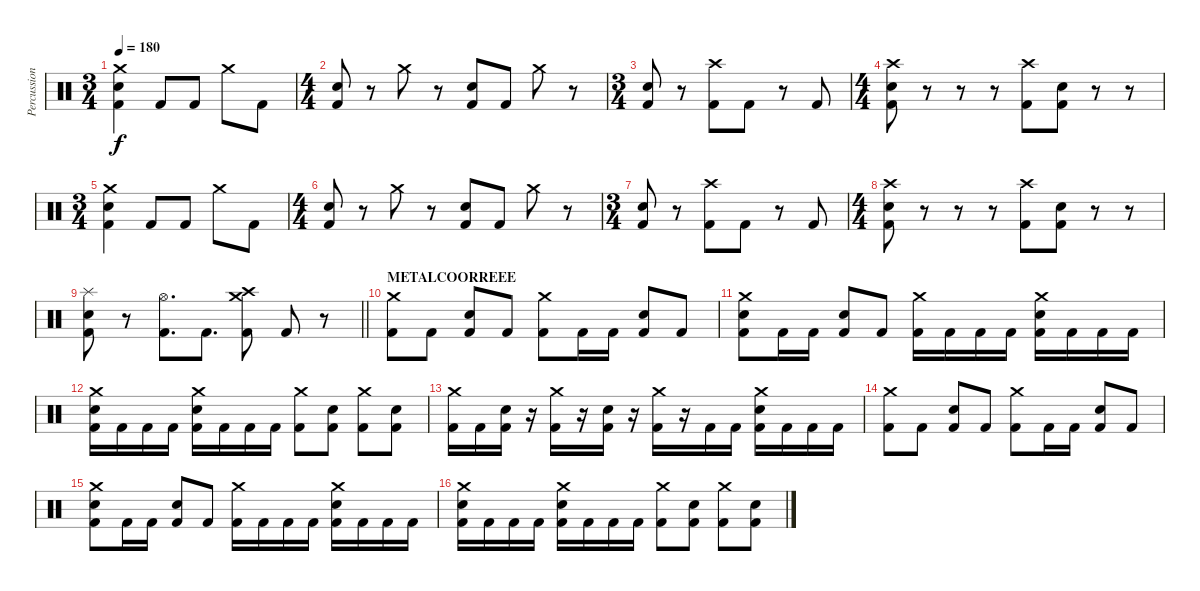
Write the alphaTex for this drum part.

\track ("Percussion" "Percussion") {instrument percussion}
\staff {score}
\articulation defaults
\ts (3 4)
\tempo 180
\clef neutral
\ks c
("Crash medium (hit)" "Electric Snare (hit)" "Kick (hit) 2").4{dy f} "Kick (hit) 2".8 "Kick (hit) 2".8 "Crash medium (hit)".8 "Kick (hit) 2".8 |
\ts (4 4)
("Electric Snare (hit)" "Kick (hit) 2").8 r.8 "Crash medium (hit)".8 r.8 ("Electric Snare (hit)" "Kick (hit) 2").8 "Kick (hit) 2".8 "Crash medium (hit)".8 r.8 |
\ts (3 4)
("Electric Snare (hit)" "Kick (hit) 2").8 r.8 ("Crash high (hit)" "Kick (hit) 2").8 "Kick (hit) 2".8 r.8 "Kick (hit) 2".8 |
\ts (4 4)
("Crash high (hit)" "Electric Snare (hit)" "Kick (hit) 2").8 r.8 r.8 r.8 ("Crash high (hit)" "Kick (hit) 2").8 ("Electric Snare (hit)" "Kick (hit) 2").8 r.8 r.8 |
\ts (3 4)
("Crash medium (hit)" "Electric Snare (hit)" "Kick (hit) 2").4 "Kick (hit) 2".8 "Kick (hit) 2".8 "Crash medium (hit)".8 "Kick (hit) 2".8 |
\ts (4 4)
("Electric Snare (hit)" "Kick (hit) 2").8 r.8 "Crash medium (hit)".8 r.8 ("Electric Snare (hit)" "Kick (hit) 2").8 "Kick (hit) 2".8 "Crash medium (hit)".8 r.8 |
\ts (3 4)
("Electric Snare (hit)" "Kick (hit) 2").8 r.8 ("Crash high (hit)" "Kick (hit) 2").8 "Kick (hit) 2".8 r.8 "Kick (hit) 2".8 |
\ts (4 4)
("Crash high (hit)" "Electric Snare (hit)" "Kick (hit) 2").8 r.8 r.8 r.8 ("Crash high (hit)" "Kick (hit) 2").8 ("Electric Snare (hit)" "Kick (hit) 2").8 r.8 r.8 |
\barLineRight lightlight
("Splash (hit)" "Electric Snare (hit)" "Kick (hit) 2").8 r.8 ("Hi-Hat (open)" "Kick (hit) 2").8{d} "Kick (hit) 2".8{d} ("Crash medium (hit)" "Crash high (hit)" "Kick (hit) 2").8 "Kick (hit) 2".8 r.8 |
\section ("" "METALCOORREEE")
("Crash medium (hit)" "Kick (hit) 2").8 "Kick (hit) 2".8 ("Electric Snare (hit)" "Kick (hit) 2").8 "Kick (hit) 2".8 ("Crash medium (hit)" "Kick (hit) 2").8 "Kick (hit) 2".16 "Kick (hit) 2".16 ("Electric Snare (hit)" "Kick (hit) 2").8 "Kick (hit) 2".8 |
("Crash medium (hit)" "Electric Snare (hit)" "Kick (hit) 2").8 "Kick (hit) 2".16 "Kick (hit) 2".16 ("Electric Snare (hit)" "Kick (hit) 2").8 "Kick (hit) 2".8 ("Crash medium (hit)" "Kick (hit) 2").16 "Kick (hit) 2".16 "Kick (hit) 2".16 "Kick (hit) 2".16 ("Crash medium (hit)" "Electric Snare (hit)" "Kick (hit) 2").16 "Kick (hit) 2".16 "Kick (hit) 2".16 "Kick (hit) 2".16 |
("Crash medium (hit)" "Electric Snare (hit)" "Kick (hit) 2").16 "Kick (hit) 2".16 "Kick (hit) 2".16 "Kick (hit) 2".16 ("Crash medium (hit)" "Electric Snare (hit)" "Kick (hit) 2").16 "Kick (hit) 2".16 "Kick (hit) 2".16 "Kick (hit) 2".16 ("Crash medium (hit)" "Kick (hit) 2").8 ("Electric Snare (hit)" "Kick (hit) 2").8 ("Crash medium (hit)" "Kick (hit) 2").8 ("Electric Snare (hit)" "Kick (hit) 2").8 |
("Crash medium (hit)" "Kick (hit) 2").16 "Kick (hit) 2".16 ("Electric Snare (hit)" "Kick (hit) 2").16 r.16 ("Crash medium (hit)" "Kick (hit) 2").16 r.16 ("Electric Snare (hit)" "Kick (hit) 2").16 r.16 ("Crash medium (hit)" "Kick (hit) 2").16 r.16 "Kick (hit) 2".16 "Kick (hit) 2".16 ("Crash medium (hit)" "Electric Snare (hit)" "Kick (hit) 2").16 "Kick (hit) 2".16 "Kick (hit) 2".16 "Kick (hit) 2".16 |
("Crash medium (hit)" "Kick (hit) 2").8 "Kick (hit) 2".8 ("Electric Snare (hit)" "Kick (hit) 2").8 "Kick (hit) 2".8 ("Crash medium (hit)" "Kick (hit) 2").8 "Kick (hit) 2".16 "Kick (hit) 2".16 ("Electric Snare (hit)" "Kick (hit) 2").8 "Kick (hit) 2".8 |
("Crash medium (hit)" "Electric Snare (hit)" "Kick (hit) 2").8 "Kick (hit) 2".16 "Kick (hit) 2".16 ("Electric Snare (hit)" "Kick (hit) 2").8 "Kick (hit) 2".8 ("Crash medium (hit)" "Kick (hit) 2").16 "Kick (hit) 2".16 "Kick (hit) 2".16 "Kick (hit) 2".16 ("Crash medium (hit)" "Electric Snare (hit)" "Kick (hit) 2").16 "Kick (hit) 2".16 "Kick (hit) 2".16 "Kick (hit) 2".16 |
("Crash medium (hit)" "Electric Snare (hit)" "Kick (hit) 2").16 "Kick (hit) 2".16 "Kick (hit) 2".16 "Kick (hit) 2".16 ("Crash medium (hit)" "Electric Snare (hit)" "Kick (hit) 2").16 "Kick (hit) 2".16 "Kick (hit) 2".16 "Kick (hit) 2".16 ("Crash medium (hit)" "Kick (hit) 2").8 ("Electric Snare (hit)" "Kick (hit) 2").8 ("Crash medium (hit)" "Kick (hit) 2").8 ("Electric Snare (hit)" "Kick (hit) 2").8
